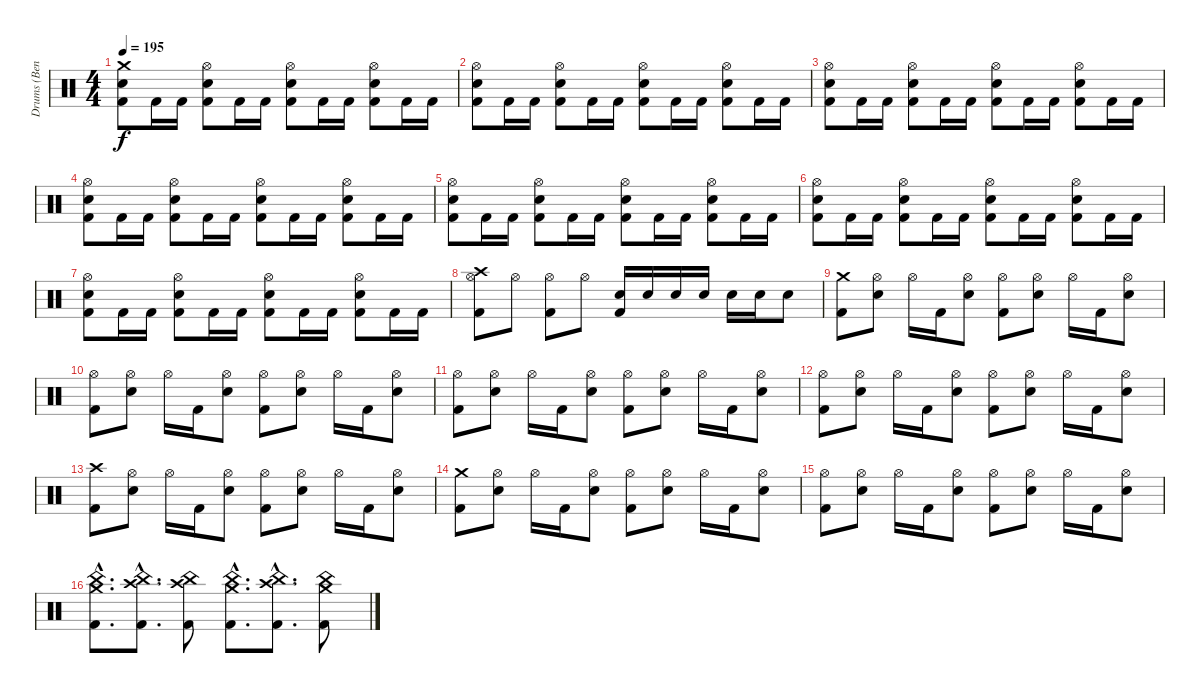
\track ("Drums (Ben)" "Drums (Ben") {instrument percussion}
\staff {score}
\articulation defaults
\ts (4 4)
\tempo 195
\clef neutral
\ks c
("Crash medium (hit)" "Snare (hit) 2" "Kick (hit) 2").8{dy f} "Kick (hit) 2".16 "Kick (hit) 2".16 ("Hi-Hat (open)" "Snare (hit) 2" "Kick (hit) 2").8 "Kick (hit) 2".16 "Kick (hit) 2".16 ("Hi-Hat (open)" "Snare (hit) 2" "Kick (hit) 2").8 "Kick (hit) 2".16 "Kick (hit) 2".16 ("Hi-Hat (open)" "Snare (hit) 2" "Kick (hit) 2").8 "Kick (hit) 2".16 "Kick (hit) 2".16 |
("Hi-Hat (open)" "Snare (hit) 2" "Kick (hit) 2").8 "Kick (hit) 2".16 "Kick (hit) 2".16 ("Hi-Hat (open)" "Snare (hit) 2" "Kick (hit) 2").8 "Kick (hit) 2".16 "Kick (hit) 2".16 ("Hi-Hat (open)" "Snare (hit) 2" "Kick (hit) 2").8 "Kick (hit) 2".16 "Kick (hit) 2".16 ("Hi-Hat (open)" "Snare (hit) 2" "Kick (hit) 2").8 "Kick (hit) 2".16 "Kick (hit) 2".16 |
("Hi-Hat (open)" "Snare (hit) 2" "Kick (hit) 2").8 "Kick (hit) 2".16 "Kick (hit) 2".16 ("Hi-Hat (open)" "Snare (hit) 2" "Kick (hit) 2").8 "Kick (hit) 2".16 "Kick (hit) 2".16 ("Hi-Hat (open)" "Snare (hit) 2" "Kick (hit) 2").8 "Kick (hit) 2".16 "Kick (hit) 2".16 ("Hi-Hat (open)" "Snare (hit) 2" "Kick (hit) 2").8 "Kick (hit) 2".16 "Kick (hit) 2".16 |
("Hi-Hat (open)" "Snare (hit) 2" "Kick (hit) 2").8 "Kick (hit) 2".16 "Kick (hit) 2".16 ("Hi-Hat (open)" "Snare (hit) 2" "Kick (hit) 2").8 "Kick (hit) 2".16 "Kick (hit) 2".16 ("Hi-Hat (open)" "Snare (hit) 2" "Kick (hit) 2").8 "Kick (hit) 2".16 "Kick (hit) 2".16 ("Hi-Hat (open)" "Snare (hit) 2" "Kick (hit) 2").8 "Kick (hit) 2".16 "Kick (hit) 2".16 |
("Hi-Hat (open)" "Snare (hit) 2" "Kick (hit) 2").8 "Kick (hit) 2".16 "Kick (hit) 2".16 ("Hi-Hat (open)" "Snare (hit) 2" "Kick (hit) 2").8 "Kick (hit) 2".16 "Kick (hit) 2".16 ("Hi-Hat (open)" "Snare (hit) 2" "Kick (hit) 2").8 "Kick (hit) 2".16 "Kick (hit) 2".16 ("Hi-Hat (open)" "Snare (hit) 2" "Kick (hit) 2").8 "Kick (hit) 2".16 "Kick (hit) 2".16 |
("Hi-Hat (open)" "Snare (hit) 2" "Kick (hit) 2").8 "Kick (hit) 2".16 "Kick (hit) 2".16 ("Hi-Hat (open)" "Snare (hit) 2" "Kick (hit) 2").8 "Kick (hit) 2".16 "Kick (hit) 2".16 ("Hi-Hat (open)" "Snare (hit) 2" "Kick (hit) 2").8 "Kick (hit) 2".16 "Kick (hit) 2".16 ("Hi-Hat (open)" "Snare (hit) 2" "Kick (hit) 2").8 "Kick (hit) 2".16 "Kick (hit) 2".16 |
("Hi-Hat (open)" "Snare (hit) 2" "Kick (hit) 2").8 "Kick (hit) 2".16 "Kick (hit) 2".16 ("Hi-Hat (open)" "Snare (hit) 2" "Kick (hit) 2").8 "Kick (hit) 2".16 "Kick (hit) 2".16 ("Hi-Hat (open)" "Snare (hit) 2" "Kick (hit) 2").8 "Kick (hit) 2".16 "Kick (hit) 2".16 ("Hi-Hat (open)" "Snare (hit) 2" "Kick (hit) 2").8 "Kick (hit) 2".16 "Kick (hit) 2".16 |
("Crash high (hit)" "Hi-Hat (open)" "Kick (hit) 2").8 "Hi-Hat (open)".8 ("Hi-Hat (open)" "Kick (hit) 2").8 "Hi-Hat (open)".8 ("Snare (hit) 2" "Kick (hit) 2").16 "Snare (hit) 2".16 "Snare (hit) 2".16 "Snare (hit) 2".16 "Snare (hit) 2".16 "Snare (hit) 2".16 "Snare (hit) 2".8 |
("Crash medium (hit)" "Kick (hit) 2").8 ("Hi-Hat (open)" "Snare (hit) 2").8 "Hi-Hat (open)".16 "Kick (hit) 2".16 ("Hi-Hat (open)" "Snare (hit) 2").8 ("Hi-Hat (open)" "Kick (hit) 2").8 ("Hi-Hat (open)" "Snare (hit) 2").8 "Hi-Hat (open)".16 "Kick (hit) 2".16 ("Hi-Hat (open)" "Snare (hit) 2").8 |
("Hi-Hat (open)" "Kick (hit) 2").8 ("Hi-Hat (open)" "Snare (hit) 2").8 "Hi-Hat (open)".16 "Kick (hit) 2".16 ("Hi-Hat (open)" "Snare (hit) 2").8 ("Hi-Hat (open)" "Kick (hit) 2").8 ("Hi-Hat (open)" "Snare (hit) 2").8 "Hi-Hat (open)".16 "Kick (hit) 2".16 ("Hi-Hat (open)" "Snare (hit) 2").8 |
("Hi-Hat (open)" "Kick (hit) 2").8 ("Hi-Hat (open)" "Snare (hit) 2").8 "Hi-Hat (open)".16 "Kick (hit) 2".16 ("Hi-Hat (open)" "Snare (hit) 2").8 ("Hi-Hat (open)" "Kick (hit) 2").8 ("Hi-Hat (open)" "Snare (hit) 2").8 "Hi-Hat (open)".16 "Kick (hit) 2".16 ("Hi-Hat (open)" "Snare (hit) 2").8 |
("Hi-Hat (open)" "Kick (hit) 2").8 ("Hi-Hat (open)" "Snare (hit) 2").8 "Hi-Hat (open)".16 "Kick (hit) 2".16 ("Hi-Hat (open)" "Snare (hit) 2").8 ("Hi-Hat (open)" "Kick (hit) 2").8 ("Hi-Hat (open)" "Snare (hit) 2").8 "Hi-Hat (open)".16 "Kick (hit) 2".16 ("Hi-Hat (open)" "Snare (hit) 2").8 |
("Crash high (hit)" "Kick (hit) 2").8 ("Hi-Hat (open)" "Snare (hit) 2").8 "Hi-Hat (open)".16 "Kick (hit) 2".16 ("Hi-Hat (open)" "Snare (hit) 2").8 ("Hi-Hat (open)" "Kick (hit) 2").8 ("Hi-Hat (open)" "Snare (hit) 2").8 "Hi-Hat (open)".16 "Kick (hit) 2".16 ("Hi-Hat (open)" "Snare (hit) 2").8 |
("Crash medium (hit)" "Kick (hit) 2").8 ("Hi-Hat (open)" "Snare (hit) 2").8 "Hi-Hat (open)".16 "Kick (hit) 2".16 ("Hi-Hat (open)" "Snare (hit) 2").8 ("Hi-Hat (open)" "Kick (hit) 2").8 ("Hi-Hat (open)" "Snare (hit) 2").8 "Hi-Hat (open)".16 "Kick (hit) 2".16 ("Hi-Hat (open)" "Snare (hit) 2").8 |
("Hi-Hat (open)" "Kick (hit) 2").8 ("Hi-Hat (open)" "Snare (hit) 2").8 "Hi-Hat (open)".16 "Kick (hit) 2".16 ("Hi-Hat (open)" "Snare (hit) 2").8 ("Hi-Hat (open)" "Kick (hit) 2").8 ("Hi-Hat (open)" "Snare (hit) 2").8 "Hi-Hat (open)".16 "Kick (hit) 2".16 ("Hi-Hat (open)" "Snare (hit) 2").8 |
("Crash medium (hit)"{hac} "China (hit)"{hac} "Kick (hit) 2"{hac}).8{d} ("Crash high (hit)"{hac} "China (hit)"{hac} "Kick (hit) 2"{hac}).8{d} ("Crash high (hit)" "China (hit)" "Kick (hit) 2").8 ("Crash medium (hit)"{hac} "China (hit)"{hac} "Kick (hit) 2"{hac}).8{d} ("Crash high (hit)"{hac} "China (hit)"{hac} "Kick (hit) 2"{hac}).8{d} ("Crash medium (hit)" "China (hit)" "Kick (hit) 2").8
